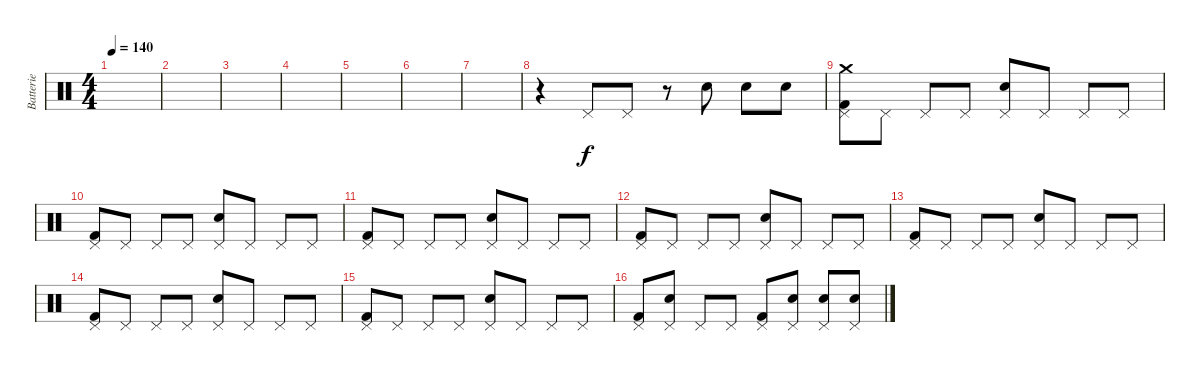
\track ("Batterie" "Batterie") {instrument percussion}
\staff {score}
\articulation defaults
\ts (4 4)
\tempo 140
\clef neutral
\ks c
|
|
|
|
|
|
|
r.4 "Pedal Hi-Hat (hit)".8 "Pedal Hi-Hat (hit)".8 r.8 "Electric Snare (hit)".8 "Electric Snare (hit)".8 "Electric Snare (hit)".8 |
("Kick (hit) 2" "Crash medium (hit)" "Pedal Hi-Hat (hit)").8 "Pedal Hi-Hat (hit)".8 "Pedal Hi-Hat (hit)".8 "Pedal Hi-Hat (hit)".8 ("Electric Snare (hit)" "Pedal Hi-Hat (hit)").8 "Pedal Hi-Hat (hit)".8 "Pedal Hi-Hat (hit)".8 "Pedal Hi-Hat (hit)".8 |
("Kick (hit) 2" "Pedal Hi-Hat (hit)").8 "Pedal Hi-Hat (hit)".8 "Pedal Hi-Hat (hit)".8 "Pedal Hi-Hat (hit)".8 ("Electric Snare (hit)" "Pedal Hi-Hat (hit)").8 "Pedal Hi-Hat (hit)".8 "Pedal Hi-Hat (hit)".8 "Pedal Hi-Hat (hit)".8 |
("Kick (hit) 2" "Pedal Hi-Hat (hit)").8 "Pedal Hi-Hat (hit)".8 "Pedal Hi-Hat (hit)".8 "Pedal Hi-Hat (hit)".8 ("Electric Snare (hit)" "Pedal Hi-Hat (hit)").8 "Pedal Hi-Hat (hit)".8 "Pedal Hi-Hat (hit)".8 "Pedal Hi-Hat (hit)".8 |
("Kick (hit) 2" "Pedal Hi-Hat (hit)").8 "Pedal Hi-Hat (hit)".8 "Pedal Hi-Hat (hit)".8 "Pedal Hi-Hat (hit)".8 ("Electric Snare (hit)" "Pedal Hi-Hat (hit)").8 "Pedal Hi-Hat (hit)".8 "Pedal Hi-Hat (hit)".8 "Pedal Hi-Hat (hit)".8 |
("Kick (hit) 2" "Pedal Hi-Hat (hit)").8 "Pedal Hi-Hat (hit)".8 "Pedal Hi-Hat (hit)".8 "Pedal Hi-Hat (hit)".8 ("Electric Snare (hit)" "Pedal Hi-Hat (hit)").8 "Pedal Hi-Hat (hit)".8 "Pedal Hi-Hat (hit)".8 "Pedal Hi-Hat (hit)".8 |
("Kick (hit) 2" "Pedal Hi-Hat (hit)").8 "Pedal Hi-Hat (hit)".8 "Pedal Hi-Hat (hit)".8 "Pedal Hi-Hat (hit)".8 ("Electric Snare (hit)" "Pedal Hi-Hat (hit)").8 "Pedal Hi-Hat (hit)".8 "Pedal Hi-Hat (hit)".8 "Pedal Hi-Hat (hit)".8 |
("Kick (hit) 2" "Pedal Hi-Hat (hit)").8 "Pedal Hi-Hat (hit)".8 "Pedal Hi-Hat (hit)".8 "Pedal Hi-Hat (hit)".8 ("Electric Snare (hit)" "Pedal Hi-Hat (hit)").8 "Pedal Hi-Hat (hit)".8 "Pedal Hi-Hat (hit)".8 "Pedal Hi-Hat (hit)".8 |
("Kick (hit) 2" "Pedal Hi-Hat (hit)").8 ("Electric Snare (hit)" "Pedal Hi-Hat (hit)").8 "Pedal Hi-Hat (hit)".8 "Pedal Hi-Hat (hit)".8 ("Kick (hit) 2" "Pedal Hi-Hat (hit)").8 ("Electric Snare (hit)" "Pedal Hi-Hat (hit)").8 ("Electric Snare (hit)" "Pedal Hi-Hat (hit)").8 ("Electric Snare (hit)" "Pedal Hi-Hat (hit)").8
